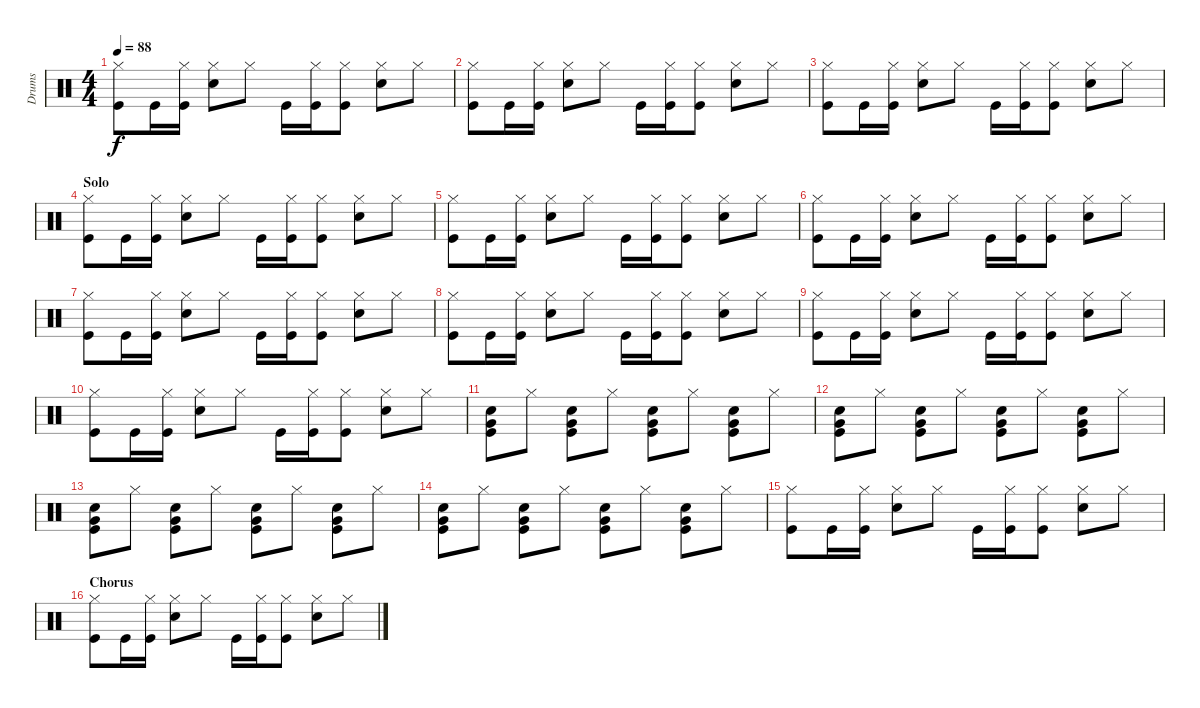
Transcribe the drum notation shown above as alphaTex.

\track ("Drums" "Drums") {instrument percussion}
\staff {score}
\articulation defaults
\ts (4 4)
\tempo 88
\clef neutral
\ks c
("Hi-Hat (closed)" "Kick (hit)").8{dy f} "Kick (hit)".16 ("Hi-Hat (closed)" "Kick (hit)").16 ("Hi-Hat (closed)" "Snare (hit) 2").8 "Hi-Hat (closed)".8 "Kick (hit)".16 ("Hi-Hat (closed)" "Kick (hit)").16 ("Hi-Hat (closed)" "Kick (hit)").8 ("Hi-Hat (closed)" "Snare (hit) 2").8 "Hi-Hat (closed)".8 |
("Hi-Hat (closed)" "Kick (hit)").8 "Kick (hit)".16 ("Hi-Hat (closed)" "Kick (hit)").16 ("Hi-Hat (closed)" "Snare (hit) 2").8 "Hi-Hat (closed)".8 "Kick (hit)".16 ("Hi-Hat (closed)" "Kick (hit)").16 ("Hi-Hat (closed)" "Kick (hit)").8 ("Hi-Hat (closed)" "Snare (hit) 2").8 "Hi-Hat (closed)".8 |
("Hi-Hat (closed)" "Kick (hit)").8 "Kick (hit)".16 ("Hi-Hat (closed)" "Kick (hit)").16 ("Hi-Hat (closed)" "Snare (hit) 2").8 "Hi-Hat (closed)".8 "Kick (hit)".16 ("Hi-Hat (closed)" "Kick (hit)").16 ("Hi-Hat (closed)" "Kick (hit)").8 ("Hi-Hat (closed)" "Snare (hit) 2").8 "Hi-Hat (closed)".8 |
\section ("" "Solo")
("Hi-Hat (closed)" "Kick (hit)").8 "Kick (hit)".16 ("Hi-Hat (closed)" "Kick (hit)").16 ("Hi-Hat (closed)" "Snare (hit) 2").8 "Hi-Hat (closed)".8 "Kick (hit)".16 ("Hi-Hat (closed)" "Kick (hit)").16 ("Hi-Hat (closed)" "Kick (hit)").8 ("Hi-Hat (closed)" "Snare (hit) 2").8 "Hi-Hat (closed)".8 |
("Hi-Hat (closed)" "Kick (hit)").8 "Kick (hit)".16 ("Hi-Hat (closed)" "Kick (hit)").16 ("Hi-Hat (closed)" "Snare (hit) 2").8 "Hi-Hat (closed)".8 "Kick (hit)".16 ("Hi-Hat (closed)" "Kick (hit)").16 ("Hi-Hat (closed)" "Kick (hit)").8 ("Hi-Hat (closed)" "Snare (hit) 2").8 "Hi-Hat (closed)".8 |
("Hi-Hat (closed)" "Kick (hit)").8 "Kick (hit)".16 ("Hi-Hat (closed)" "Kick (hit)").16 ("Hi-Hat (closed)" "Snare (hit) 2").8 "Hi-Hat (closed)".8 "Kick (hit)".16 ("Hi-Hat (closed)" "Kick (hit)").16 ("Hi-Hat (closed)" "Kick (hit)").8 ("Hi-Hat (closed)" "Snare (hit) 2").8 "Hi-Hat (closed)".8 |
("Hi-Hat (closed)" "Kick (hit)").8 "Kick (hit)".16 ("Hi-Hat (closed)" "Kick (hit)").16 ("Hi-Hat (closed)" "Snare (hit) 2").8 "Hi-Hat (closed)".8 "Kick (hit)".16 ("Hi-Hat (closed)" "Kick (hit)").16 ("Hi-Hat (closed)" "Kick (hit)").8 ("Hi-Hat (closed)" "Snare (hit) 2").8 "Hi-Hat (closed)".8 |
("Hi-Hat (closed)" "Kick (hit)").8 "Kick (hit)".16 ("Hi-Hat (closed)" "Kick (hit)").16 ("Hi-Hat (closed)" "Snare (hit) 2").8 "Hi-Hat (closed)".8 "Kick (hit)".16 ("Hi-Hat (closed)" "Kick (hit)").16 ("Hi-Hat (closed)" "Kick (hit)").8 ("Hi-Hat (closed)" "Snare (hit) 2").8 "Hi-Hat (closed)".8 |
("Hi-Hat (closed)" "Kick (hit)").8 "Kick (hit)".16 ("Hi-Hat (closed)" "Kick (hit)").16 ("Hi-Hat (closed)" "Snare (hit) 2").8 "Hi-Hat (closed)".8 "Kick (hit)".16 ("Hi-Hat (closed)" "Kick (hit)").16 ("Hi-Hat (closed)" "Kick (hit)").8 ("Hi-Hat (closed)" "Snare (hit) 2").8 "Hi-Hat (closed)".8 |
("Hi-Hat (closed)" "Kick (hit)").8 "Kick (hit)".16 ("Hi-Hat (closed)" "Kick (hit)").16 ("Hi-Hat (closed)" "Snare (hit) 2").8 "Hi-Hat (closed)".8 "Kick (hit)".16 ("Hi-Hat (closed)" "Kick (hit)").16 ("Hi-Hat (closed)" "Kick (hit)").8 ("Hi-Hat (closed)" "Snare (hit) 2").8 "Hi-Hat (closed)".8 |
("Very Low Tom (hit)" "Snare (hit) 2" "Kick (hit)").8 "Hi-Hat (closed)".8 ("Snare (hit) 2" "Kick (hit)" "Very Low Tom (hit)").8 "Hi-Hat (closed)".8 ("Snare (hit) 2" "Kick (hit)" "Very Low Tom (hit)").8 "Hi-Hat (closed)".8 ("Snare (hit) 2" "Very Low Tom (hit)" "Kick (hit)").8 "Hi-Hat (closed)".8 |
("Very Low Tom (hit)" "Snare (hit) 2" "Kick (hit)").8 "Hi-Hat (closed)".8 ("Snare (hit) 2" "Kick (hit)" "Very Low Tom (hit)").8 "Hi-Hat (closed)".8 ("Snare (hit) 2" "Kick (hit)" "Very Low Tom (hit)").8 "Hi-Hat (closed)".8 ("Snare (hit) 2" "Very Low Tom (hit)" "Kick (hit)").8 "Hi-Hat (closed)".8 |
("Very Low Tom (hit)" "Snare (hit) 2" "Kick (hit)").8 "Hi-Hat (closed)".8 ("Snare (hit) 2" "Kick (hit)" "Very Low Tom (hit)").8 "Hi-Hat (closed)".8 ("Snare (hit) 2" "Kick (hit)" "Very Low Tom (hit)").8 "Hi-Hat (closed)".8 ("Snare (hit) 2" "Very Low Tom (hit)" "Kick (hit)").8 "Hi-Hat (closed)".8 |
("Very Low Tom (hit)" "Snare (hit) 2" "Kick (hit)").8 "Hi-Hat (closed)".8 ("Snare (hit) 2" "Kick (hit)" "Very Low Tom (hit)").8 "Hi-Hat (closed)".8 ("Snare (hit) 2" "Kick (hit)" "Very Low Tom (hit)").8 "Hi-Hat (closed)".8 ("Snare (hit) 2" "Very Low Tom (hit)" "Kick (hit)").8 "Hi-Hat (closed)".8 |
("Hi-Hat (closed)" "Kick (hit)").8 "Kick (hit)".16 ("Hi-Hat (closed)" "Kick (hit)").16 ("Hi-Hat (closed)" "Snare (hit) 2").8 "Hi-Hat (closed)".8 "Kick (hit)".16 ("Hi-Hat (closed)" "Kick (hit)").16 ("Hi-Hat (closed)" "Kick (hit)").8 ("Hi-Hat (closed)" "Snare (hit) 2").8 "Hi-Hat (closed)".8 |
\section ("" "Chorus")
("Hi-Hat (closed)" "Kick (hit)").8 "Kick (hit)".16 ("Hi-Hat (closed)" "Kick (hit)").16 ("Hi-Hat (closed)" "Snare (hit) 2").8 "Hi-Hat (closed)".8 "Kick (hit)".16 ("Hi-Hat (closed)" "Kick (hit)").16 ("Hi-Hat (closed)" "Kick (hit)").8 ("Hi-Hat (closed)" "Snare (hit) 2").8 "Hi-Hat (closed)".8
